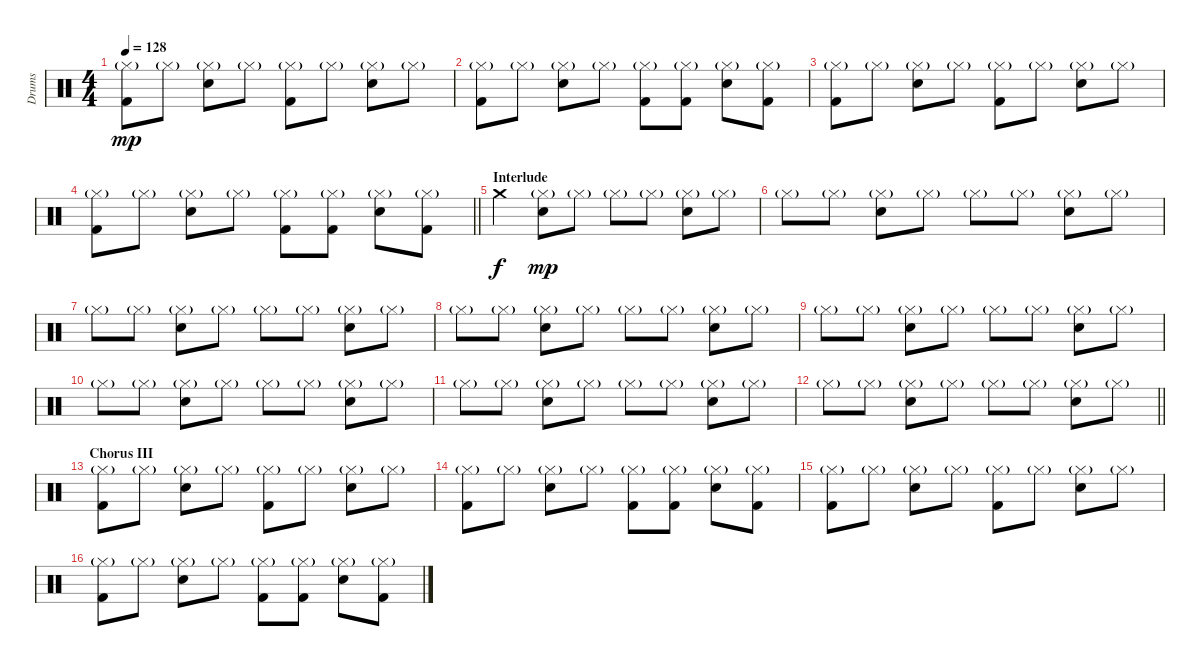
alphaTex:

\track ("Drums" "Drums") {instrument percussion}
\staff {score}
\articulation defaults
\ts (4 4)
\tempo 128
\clef neutral
\ks c
("Kick (hit) 2" "Hi-Hat (closed)"{g}).8{dy mp} "Hi-Hat (closed)"{g}.8 ("Snare (hit) 2" "Hi-Hat (closed)"{g}).8 "Hi-Hat (closed)"{g}.8 ("Kick (hit) 2" "Hi-Hat (closed)"{g}).8 "Hi-Hat (closed)"{g}.8 ("Snare (hit) 2" "Hi-Hat (closed)"{g}).8 "Hi-Hat (closed)"{g}.8 |
("Kick (hit) 2" "Hi-Hat (closed)"{g}).8 "Hi-Hat (closed)"{g}.8 ("Snare (hit) 2" "Hi-Hat (closed)"{g}).8 "Hi-Hat (closed)"{g}.8 ("Kick (hit) 2" "Hi-Hat (closed)"{g}).8 ("Kick (hit) 2" "Hi-Hat (closed)"{g}).8 ("Snare (hit) 2" "Hi-Hat (closed)"{g}).8 ("Kick (hit) 2" "Hi-Hat (closed)"{g}).8 |
("Kick (hit) 2" "Hi-Hat (closed)"{g}).8 "Hi-Hat (closed)"{g}.8 ("Snare (hit) 2" "Hi-Hat (closed)"{g}).8 "Hi-Hat (closed)"{g}.8 ("Kick (hit) 2" "Hi-Hat (closed)"{g}).8 "Hi-Hat (closed)"{g}.8 ("Snare (hit) 2" "Hi-Hat (closed)"{g}).8 "Hi-Hat (closed)"{g}.8 |
\barLineRight lightlight
("Kick (hit) 2" "Hi-Hat (closed)"{g}).8 "Hi-Hat (closed)"{g}.8 ("Snare (hit) 2" "Hi-Hat (closed)"{g}).8 "Hi-Hat (closed)"{g}.8 ("Kick (hit) 2" "Hi-Hat (closed)"{g}).8 ("Kick (hit) 2" "Hi-Hat (closed)"{g}).8 ("Snare (hit) 2" "Hi-Hat (closed)"{g}).8 ("Kick (hit) 2" "Hi-Hat (closed)"{g}).8 |
\section ("" "Interlude")
"Crash medium (hit)".4{dy f} ("Hand Clap (hit)" "Hi-Hat (closed)"{g}).8{dy mp} "Hi-Hat (closed)"{g}.8 "Hi-Hat (closed)"{g}.8 "Hi-Hat (closed)"{g}.8 ("Hand Clap (hit)" "Hi-Hat (closed)"{g}).8 "Hi-Hat (closed)"{g}.8 |
"Hi-Hat (closed)"{g}.8 "Hi-Hat (closed)"{g}.8 ("Hand Clap (hit)" "Hi-Hat (closed)"{g}).8 "Hi-Hat (closed)"{g}.8 "Hi-Hat (closed)"{g}.8 "Hi-Hat (closed)"{g}.8 ("Hand Clap (hit)" "Hi-Hat (closed)"{g}).8 "Hi-Hat (closed)"{g}.8 |
"Hi-Hat (closed)"{g}.8 "Hi-Hat (closed)"{g}.8 ("Hand Clap (hit)" "Hi-Hat (closed)"{g}).8 "Hi-Hat (closed)"{g}.8 "Hi-Hat (closed)"{g}.8 "Hi-Hat (closed)"{g}.8 ("Hand Clap (hit)" "Hi-Hat (closed)"{g}).8 "Hi-Hat (closed)"{g}.8 |
"Hi-Hat (closed)"{g}.8 "Hi-Hat (closed)"{g}.8 ("Hand Clap (hit)" "Hi-Hat (closed)"{g}).8 "Hi-Hat (closed)"{g}.8 "Hi-Hat (closed)"{g}.8 "Hi-Hat (closed)"{g}.8 ("Hand Clap (hit)" "Hi-Hat (closed)"{g}).8 "Hi-Hat (closed)"{g}.8 |
"Hi-Hat (closed)"{g}.8 "Hi-Hat (closed)"{g}.8 ("Hand Clap (hit)" "Hi-Hat (closed)"{g}).8 "Hi-Hat (closed)"{g}.8 "Hi-Hat (closed)"{g}.8 "Hi-Hat (closed)"{g}.8 ("Hand Clap (hit)" "Hi-Hat (closed)"{g}).8 "Hi-Hat (closed)"{g}.8 |
"Hi-Hat (closed)"{g}.8 "Hi-Hat (closed)"{g}.8 ("Hand Clap (hit)" "Hi-Hat (closed)"{g}).8 "Hi-Hat (closed)"{g}.8 "Hi-Hat (closed)"{g}.8 "Hi-Hat (closed)"{g}.8 ("Hand Clap (hit)" "Hi-Hat (closed)"{g}).8 "Hi-Hat (closed)"{g}.8 |
"Hi-Hat (closed)"{g}.8 "Hi-Hat (closed)"{g}.8 ("Hand Clap (hit)" "Hi-Hat (closed)"{g}).8 "Hi-Hat (closed)"{g}.8 "Hi-Hat (closed)"{g}.8 "Hi-Hat (closed)"{g}.8 ("Hand Clap (hit)" "Hi-Hat (closed)"{g}).8 "Hi-Hat (closed)"{g}.8 |
\barLineRight lightlight "Hi-Hat (closed)"{g}.8 "Hi-Hat (closed)"{g}.8
("Hand Clap (hit)" "Hi-Hat (closed)"{g}).8 "Hi-Hat (closed)"{g}.8 "Hi-Hat (closed)"{g}.8 "Hi-Hat (closed)"{g}.8 ("Hand Clap (hit)" "Hi-Hat (closed)"{g}).8 "Hi-Hat (closed)"{g}.8 |
\section ("" "Chorus III")
("Kick (hit) 2" "Hi-Hat (closed)"{g}).8 "Hi-Hat (closed)"{g}.8 ("Snare (hit) 2" "Hi-Hat (closed)"{g}).8 "Hi-Hat (closed)"{g}.8 ("Kick (hit) 2" "Hi-Hat (closed)"{g}).8 "Hi-Hat (closed)"{g}.8 ("Snare (hit) 2" "Hi-Hat (closed)"{g}).8 "Hi-Hat (closed)"{g}.8 |
("Kick (hit) 2" "Hi-Hat (closed)"{g}).8 "Hi-Hat (closed)"{g}.8 ("Snare (hit) 2" "Hi-Hat (closed)"{g}).8 "Hi-Hat (closed)"{g}.8 ("Kick (hit) 2" "Hi-Hat (closed)"{g}).8 ("Kick (hit) 2" "Hi-Hat (closed)"{g}).8 ("Snare (hit) 2" "Hi-Hat (closed)"{g}).8 ("Kick (hit) 2" "Hi-Hat (closed)"{g}).8 |
("Kick (hit) 2" "Hi-Hat (closed)"{g}).8 "Hi-Hat (closed)"{g}.8 ("Snare (hit) 2" "Hi-Hat (closed)"{g}).8 "Hi-Hat (closed)"{g}.8 ("Kick (hit) 2" "Hi-Hat (closed)"{g}).8 "Hi-Hat (closed)"{g}.8 ("Snare (hit) 2" "Hi-Hat (closed)"{g}).8 "Hi-Hat (closed)"{g}.8 |
("Kick (hit) 2" "Hi-Hat (closed)"{g}).8 "Hi-Hat (closed)"{g}.8 ("Snare (hit) 2" "Hi-Hat (closed)"{g}).8 "Hi-Hat (closed)"{g}.8 ("Kick (hit) 2" "Hi-Hat (closed)"{g}).8 ("Kick (hit) 2" "Hi-Hat (closed)"{g}).8 ("Snare (hit) 2" "Hi-Hat (closed)"{g}).8 ("Kick (hit) 2" "Hi-Hat (closed)"{g}).8
